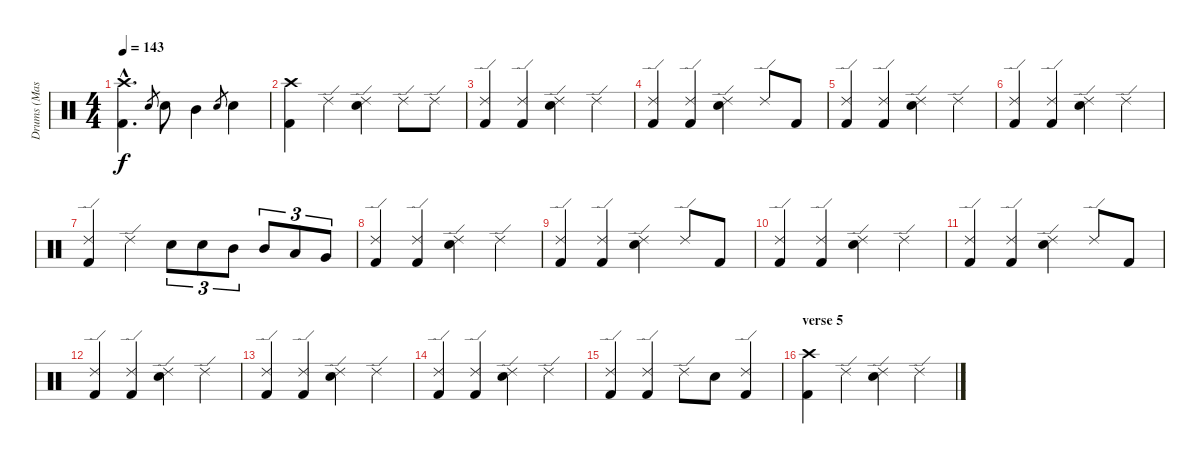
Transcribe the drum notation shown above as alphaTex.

\track ("Drums (Mason)" "Drums (Mas") {instrument percussion}
\staff {score}
\articulation defaults
\ts (4 4)
\tempo 143
\clef neutral
\ks c
("Crash high (hit)"{hac} "Kick (hit) 2"{hac}).4{d dy f} "Electric Snare (hit)".8{gr} "Electric Snare (hit)".8 "Mid Tom (hit)".4 "Electric Snare (hit)".8{gr} "Electric Snare (hit)".4 |
("Crash high (hit)" "Kick (hit) 2").4 "Ride (edge) 2".4 ("Ride (edge) 2" "Electric Snare (hit)").4 "Ride (edge) 2".8 "Ride (edge) 2".8 |
("Ride (edge) 2" "Kick (hit) 2").4 ("Ride (edge) 2" "Kick (hit) 2").4 ("Ride (edge) 2" "Electric Snare (hit)").4 "Ride (edge) 2".4 |
("Ride (edge) 2" "Kick (hit) 2").4 ("Ride (edge) 2" "Kick (hit) 2").4 ("Ride (edge) 2" "Electric Snare (hit)").4 "Ride (edge) 2".8 "Kick (hit) 2".8 |
("Ride (edge) 2" "Kick (hit) 2").4 ("Ride (edge) 2" "Kick (hit) 2").4 ("Ride (edge) 2" "Electric Snare (hit)").4 "Ride (edge) 2".4 |
("Ride (edge) 2" "Kick (hit) 2").4 ("Ride (edge) 2" "Kick (hit) 2").4 ("Ride (edge) 2" "Electric Snare (hit)").4 "Ride (edge) 2".4 |
("Ride (edge) 2" "Kick (hit) 2").4 "Ride (edge) 2".4 "Electric Snare (hit)".8{tu (3 2)} "Electric Snare (hit)".8{tu (3 2)} "Mid Tom (hit)".8{tu (3 2)} "Mid Tom (hit)".8{tu (3 2)} "Low Tom (hit)".8{tu (3 2)} "Very Low Tom (hit)".8{tu (3 2)} |
("Ride (edge) 2" "Kick (hit) 2").4 ("Ride (edge) 2" "Kick (hit) 2").4 ("Ride (edge) 2" "Electric Snare (hit)").4 "Ride (edge) 2".4 |
("Ride (edge) 2" "Kick (hit) 2").4 ("Ride (edge) 2" "Kick (hit) 2").4 ("Ride (edge) 2" "Electric Snare (hit)").4 "Ride (edge) 2".8 "Kick (hit) 2".8 |
("Ride (edge) 2" "Kick (hit) 2").4 ("Ride (edge) 2" "Kick (hit) 2").4 ("Ride (edge) 2" "Electric Snare (hit)").4 "Ride (edge) 2".4 |
("Ride (edge) 2" "Kick (hit) 2").4 ("Ride (edge) 2" "Kick (hit) 2").4 ("Ride (edge) 2" "Electric Snare (hit)").4 "Ride (edge) 2".8 "Kick (hit) 2".8 |
("Ride (edge) 2" "Kick (hit) 2").4 ("Ride (edge) 2" "Kick (hit) 2").4 ("Ride (edge) 2" "Electric Snare (hit)").4 "Ride (edge) 2".4 |
("Ride (edge) 2" "Kick (hit) 2").4 ("Ride (edge) 2" "Kick (hit) 2").4 ("Ride (edge) 2" "Electric Snare (hit)").4 "Ride (edge) 2".4 |
("Ride (edge) 2" "Kick (hit) 2").4 ("Ride (edge) 2" "Kick (hit) 2").4 ("Ride (edge) 2" "Electric Snare (hit)").4 "Ride (edge) 2".4 |
("Ride (edge) 2" "Kick (hit) 2").4 ("Ride (edge) 2" "Kick (hit) 2").4 "Ride (edge) 2".8 "Electric Snare (hit)".8 ("Ride (edge) 2" "Kick (hit) 2").4 |
\section ("" "verse 5")
("Crash high (hit)" "Kick (hit) 2").4 "Ride (edge) 2".4 ("Ride (edge) 2" "Electric Snare (hit)").4 "Ride (edge) 2".4
